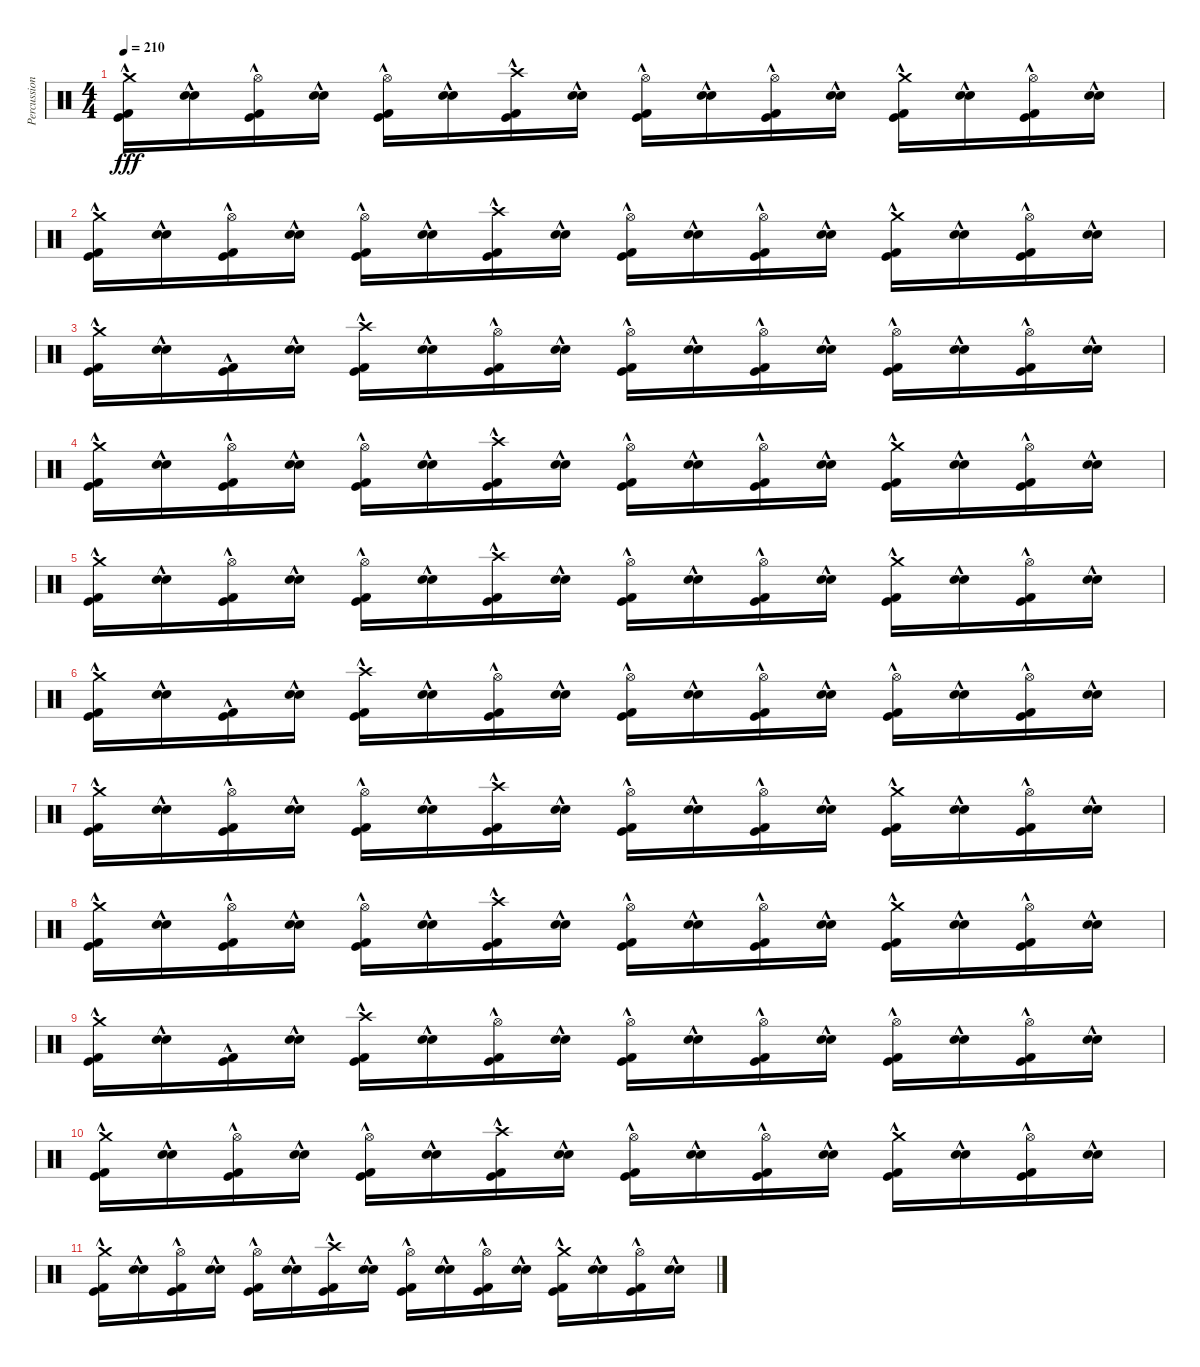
\track ("Percussion" "Percussion") {instrument percussion}
\staff {score}
\articulation defaults
\ts (4 4)
\tempo 210
\clef neutral
\ks c
("Crash medium (hit)"{hac} "Kick (hit)"{hac} "Kick (hit) 2"{hac}).16{dy fff} ("Electric Snare (hit)"{hac} "Snare (hit) 2"{hac}).16 ("Hi-Hat (open)" "Kick (hit)"{hac} "Kick (hit) 2"{hac}).16 ("Electric Snare (hit)"{hac} "Snare (hit) 2"{hac}).16 ("Hi-Hat (open)"{hac} "Kick (hit)"{hac} "Kick (hit) 2"{hac}).16 ("Electric Snare (hit)"{hac} "Snare (hit) 2"{hac}).16 ("Crash high (hit)"{hac} "Kick (hit)"{hac} "Kick (hit) 2"{hac}).16 ("Electric Snare (hit)"{hac} "Snare (hit) 2"{hac}).16 ("Hi-Hat (open)"{hac} "Kick (hit)"{hac} "Kick (hit) 2"{hac}).16 ("Electric Snare (hit)"{hac} "Snare (hit) 2"{hac}).16 ("Hi-Hat (open)"{hac} "Kick (hit)"{hac} "Kick (hit) 2"{hac}).16 ("Electric Snare (hit)"{hac} "Snare (hit) 2"{hac}).16 ("Crash medium (hit)"{hac} "Kick (hit)"{hac} "Kick (hit) 2"{hac}).16 ("Electric Snare (hit)"{hac} "Snare (hit) 2"{hac}).16 ("Hi-Hat (open)"{hac} "Kick (hit)"{hac} "Kick (hit) 2"{hac}).16 ("Electric Snare (hit)"{hac} "Snare (hit) 2"{hac}).16 |
("Crash medium (hit)"{hac} "Kick (hit)"{hac} "Kick (hit) 2"{hac}).16 ("Electric Snare (hit)"{hac} "Snare (hit) 2"{hac}).16 ("Hi-Hat (open)" "Kick (hit)"{hac} "Kick (hit) 2"{hac}).16 ("Electric Snare (hit)"{hac} "Snare (hit) 2"{hac}).16 ("Hi-Hat (open)"{hac} "Kick (hit)"{hac} "Kick (hit) 2"{hac}).16 ("Electric Snare (hit)"{hac} "Snare (hit) 2"{hac}).16 ("Crash high (hit)"{hac} "Kick (hit)"{hac} "Kick (hit) 2"{hac}).16 ("Electric Snare (hit)"{hac} "Snare (hit) 2"{hac}).16 ("Hi-Hat (open)"{hac} "Kick (hit)"{hac} "Kick (hit) 2"{hac}).16 ("Electric Snare (hit)"{hac} "Snare (hit) 2"{hac}).16 ("Hi-Hat (open)"{hac} "Kick (hit)"{hac} "Kick (hit) 2"{hac}).16 ("Electric Snare (hit)"{hac} "Snare (hit) 2"{hac}).16 ("Crash medium (hit)"{hac} "Kick (hit)"{hac} "Kick (hit) 2"{hac}).16 ("Electric Snare (hit)"{hac} "Snare (hit) 2"{hac}).16 ("Hi-Hat (open)"{hac} "Kick (hit)"{hac} "Kick (hit) 2"{hac}).16 ("Electric Snare (hit)"{hac} "Snare (hit) 2"{hac}).16 |
("Crash medium (hit)"{hac} "Kick (hit)"{hac} "Kick (hit) 2"{hac}).16 ("Electric Snare (hit)"{hac} "Snare (hit) 2"{hac}).16 ("Kick (hit)"{hac} "Kick (hit) 2"{hac}).16 ("Electric Snare (hit)"{hac} "Snare (hit) 2"{hac}).16 ("Crash high (hit)"{hac} "Kick (hit)"{hac} "Kick (hit) 2"{hac}).16 ("Electric Snare (hit)"{hac} "Snare (hit) 2"{hac}).16 ("Hi-Hat (open)"{hac} "Kick (hit)"{hac} "Kick (hit) 2"{hac}).16 ("Electric Snare (hit)"{hac} "Snare (hit) 2"{hac}).16 ("Hi-Hat (open)"{hac} "Kick (hit)"{hac} "Kick (hit) 2"{hac}).16 ("Electric Snare (hit)"{hac} "Snare (hit) 2"{hac}).16 ("Hi-Hat (open)"{hac} "Kick (hit)"{hac} "Kick (hit) 2"{hac}).16 ("Electric Snare (hit)"{hac} "Snare (hit) 2"{hac}).16 ("Hi-Hat (open)"{hac} "Kick (hit)"{hac} "Kick (hit) 2"{hac}).16 ("Electric Snare (hit)"{hac} "Snare (hit) 2"{hac}).16 ("Hi-Hat (open)"{hac} "Kick (hit)"{hac} "Kick (hit) 2"{hac}).16 ("Electric Snare (hit)"{hac} "Snare (hit) 2"{hac}).16 |
("Crash medium (hit)"{hac} "Kick (hit)"{hac} "Kick (hit) 2"{hac}).16 ("Electric Snare (hit)"{hac} "Snare (hit) 2"{hac}).16 ("Hi-Hat (open)" "Kick (hit)"{hac} "Kick (hit) 2"{hac}).16 ("Electric Snare (hit)"{hac} "Snare (hit) 2"{hac}).16 ("Hi-Hat (open)"{hac} "Kick (hit)"{hac} "Kick (hit) 2"{hac}).16 ("Electric Snare (hit)"{hac} "Snare (hit) 2"{hac}).16 ("Crash high (hit)"{hac} "Kick (hit)"{hac} "Kick (hit) 2"{hac}).16 ("Electric Snare (hit)"{hac} "Snare (hit) 2"{hac}).16 ("Hi-Hat (open)"{hac} "Kick (hit)"{hac} "Kick (hit) 2"{hac}).16 ("Electric Snare (hit)"{hac} "Snare (hit) 2"{hac}).16 ("Hi-Hat (open)"{hac} "Kick (hit)"{hac} "Kick (hit) 2"{hac}).16 ("Electric Snare (hit)"{hac} "Snare (hit) 2"{hac}).16 ("Crash medium (hit)"{hac} "Kick (hit)"{hac} "Kick (hit) 2"{hac}).16 ("Electric Snare (hit)"{hac} "Snare (hit) 2"{hac}).16 ("Hi-Hat (open)"{hac} "Kick (hit)"{hac} "Kick (hit) 2"{hac}).16 ("Electric Snare (hit)"{hac} "Snare (hit) 2"{hac}).16 |
("Crash medium (hit)"{hac} "Kick (hit)"{hac} "Kick (hit) 2"{hac}).16 ("Electric Snare (hit)"{hac} "Snare (hit) 2"{hac}).16 ("Hi-Hat (open)" "Kick (hit)"{hac} "Kick (hit) 2"{hac}).16 ("Electric Snare (hit)"{hac} "Snare (hit) 2"{hac}).16 ("Hi-Hat (open)"{hac} "Kick (hit)"{hac} "Kick (hit) 2"{hac}).16 ("Electric Snare (hit)"{hac} "Snare (hit) 2"{hac}).16 ("Crash high (hit)"{hac} "Kick (hit)"{hac} "Kick (hit) 2"{hac}).16 ("Electric Snare (hit)"{hac} "Snare (hit) 2"{hac}).16 ("Hi-Hat (open)"{hac} "Kick (hit)"{hac} "Kick (hit) 2"{hac}).16 ("Electric Snare (hit)"{hac} "Snare (hit) 2"{hac}).16 ("Hi-Hat (open)"{hac} "Kick (hit)"{hac} "Kick (hit) 2"{hac}).16 ("Electric Snare (hit)"{hac} "Snare (hit) 2"{hac}).16 ("Crash medium (hit)"{hac} "Kick (hit)"{hac} "Kick (hit) 2"{hac}).16 ("Electric Snare (hit)"{hac} "Snare (hit) 2"{hac}).16 ("Hi-Hat (open)"{hac} "Kick (hit)"{hac} "Kick (hit) 2"{hac}).16 ("Electric Snare (hit)"{hac} "Snare (hit) 2"{hac}).16 |
("Crash medium (hit)"{hac} "Kick (hit)"{hac} "Kick (hit) 2"{hac}).16 ("Electric Snare (hit)"{hac} "Snare (hit) 2"{hac}).16 ("Kick (hit)"{hac} "Kick (hit) 2"{hac}).16 ("Electric Snare (hit)"{hac} "Snare (hit) 2"{hac}).16 ("Crash high (hit)"{hac} "Kick (hit)"{hac} "Kick (hit) 2"{hac}).16 ("Electric Snare (hit)"{hac} "Snare (hit) 2"{hac}).16 ("Hi-Hat (open)"{hac} "Kick (hit)"{hac} "Kick (hit) 2"{hac}).16 ("Electric Snare (hit)"{hac} "Snare (hit) 2"{hac}).16 ("Hi-Hat (open)"{hac} "Kick (hit)"{hac} "Kick (hit) 2"{hac}).16 ("Electric Snare (hit)"{hac} "Snare (hit) 2"{hac}).16 ("Hi-Hat (open)"{hac} "Kick (hit)"{hac} "Kick (hit) 2"{hac}).16 ("Electric Snare (hit)"{hac} "Snare (hit) 2"{hac}).16 ("Hi-Hat (open)"{hac} "Kick (hit)"{hac} "Kick (hit) 2"{hac}).16 ("Electric Snare (hit)"{hac} "Snare (hit) 2"{hac}).16 ("Hi-Hat (open)"{hac} "Kick (hit)"{hac} "Kick (hit) 2"{hac}).16 ("Electric Snare (hit)"{hac} "Snare (hit) 2"{hac}).16 |
("Crash medium (hit)"{hac} "Kick (hit)"{hac} "Kick (hit) 2"{hac}).16 ("Electric Snare (hit)"{hac} "Snare (hit) 2"{hac}).16 ("Hi-Hat (open)" "Kick (hit)"{hac} "Kick (hit) 2"{hac}).16 ("Electric Snare (hit)"{hac} "Snare (hit) 2"{hac}).16 ("Hi-Hat (open)"{hac} "Kick (hit)"{hac} "Kick (hit) 2"{hac}).16 ("Electric Snare (hit)"{hac} "Snare (hit) 2"{hac}).16 ("Crash high (hit)"{hac} "Kick (hit)"{hac} "Kick (hit) 2"{hac}).16 ("Electric Snare (hit)"{hac} "Snare (hit) 2"{hac}).16 ("Hi-Hat (open)"{hac} "Kick (hit)"{hac} "Kick (hit) 2"{hac}).16 ("Electric Snare (hit)"{hac} "Snare (hit) 2"{hac}).16 ("Hi-Hat (open)"{hac} "Kick (hit)"{hac} "Kick (hit) 2"{hac}).16 ("Electric Snare (hit)"{hac} "Snare (hit) 2"{hac}).16 ("Crash medium (hit)"{hac} "Kick (hit)"{hac} "Kick (hit) 2"{hac}).16 ("Electric Snare (hit)"{hac} "Snare (hit) 2"{hac}).16 ("Hi-Hat (open)"{hac} "Kick (hit)"{hac} "Kick (hit) 2"{hac}).16 ("Electric Snare (hit)"{hac} "Snare (hit) 2"{hac}).16 |
("Crash medium (hit)"{hac} "Kick (hit)"{hac} "Kick (hit) 2"{hac}).16 ("Electric Snare (hit)"{hac} "Snare (hit) 2"{hac}).16 ("Hi-Hat (open)" "Kick (hit)"{hac} "Kick (hit) 2"{hac}).16 ("Electric Snare (hit)"{hac} "Snare (hit) 2"{hac}).16 ("Hi-Hat (open)"{hac} "Kick (hit)"{hac} "Kick (hit) 2"{hac}).16 ("Electric Snare (hit)"{hac} "Snare (hit) 2"{hac}).16 ("Crash high (hit)"{hac} "Kick (hit)"{hac} "Kick (hit) 2"{hac}).16 ("Electric Snare (hit)"{hac} "Snare (hit) 2"{hac}).16 ("Hi-Hat (open)"{hac} "Kick (hit)"{hac} "Kick (hit) 2"{hac}).16 ("Electric Snare (hit)"{hac} "Snare (hit) 2"{hac}).16 ("Hi-Hat (open)"{hac} "Kick (hit)"{hac} "Kick (hit) 2"{hac}).16 ("Electric Snare (hit)"{hac} "Snare (hit) 2"{hac}).16 ("Crash medium (hit)"{hac} "Kick (hit)"{hac} "Kick (hit) 2"{hac}).16 ("Electric Snare (hit)"{hac} "Snare (hit) 2"{hac}).16 ("Hi-Hat (open)"{hac} "Kick (hit)"{hac} "Kick (hit) 2"{hac}).16 ("Electric Snare (hit)"{hac} "Snare (hit) 2"{hac}).16 |
("Crash medium (hit)"{hac} "Kick (hit)"{hac} "Kick (hit) 2"{hac}).16 ("Electric Snare (hit)"{hac} "Snare (hit) 2"{hac}).16 ("Kick (hit)"{hac} "Kick (hit) 2"{hac}).16 ("Electric Snare (hit)"{hac} "Snare (hit) 2"{hac}).16 ("Crash high (hit)"{hac} "Kick (hit)"{hac} "Kick (hit) 2"{hac}).16 ("Electric Snare (hit)"{hac} "Snare (hit) 2"{hac}).16 ("Hi-Hat (open)"{hac} "Kick (hit)"{hac} "Kick (hit) 2"{hac}).16 ("Electric Snare (hit)"{hac} "Snare (hit) 2"{hac}).16 ("Hi-Hat (open)"{hac} "Kick (hit)"{hac} "Kick (hit) 2"{hac}).16 ("Electric Snare (hit)"{hac} "Snare (hit) 2"{hac}).16 ("Hi-Hat (open)"{hac} "Kick (hit)"{hac} "Kick (hit) 2"{hac}).16 ("Electric Snare (hit)"{hac} "Snare (hit) 2"{hac}).16 ("Hi-Hat (open)"{hac} "Kick (hit)"{hac} "Kick (hit) 2"{hac}).16 ("Electric Snare (hit)"{hac} "Snare (hit) 2"{hac}).16 ("Hi-Hat (open)"{hac} "Kick (hit)"{hac} "Kick (hit) 2"{hac}).16 ("Electric Snare (hit)"{hac} "Snare (hit) 2"{hac}).16 |
("Crash medium (hit)"{hac} "Kick (hit)"{hac} "Kick (hit) 2"{hac}).16 ("Electric Snare (hit)"{hac} "Snare (hit) 2"{hac}).16 ("Hi-Hat (open)" "Kick (hit)"{hac} "Kick (hit) 2"{hac}).16 ("Electric Snare (hit)"{hac} "Snare (hit) 2"{hac}).16 ("Hi-Hat (open)"{hac} "Kick (hit)"{hac} "Kick (hit) 2"{hac}).16 ("Electric Snare (hit)"{hac} "Snare (hit) 2"{hac}).16 ("Crash high (hit)"{hac} "Kick (hit)"{hac} "Kick (hit) 2"{hac}).16 ("Electric Snare (hit)"{hac} "Snare (hit) 2"{hac}).16 ("Hi-Hat (open)"{hac} "Kick (hit)"{hac} "Kick (hit) 2"{hac}).16 ("Electric Snare (hit)"{hac} "Snare (hit) 2"{hac}).16 ("Hi-Hat (open)"{hac} "Kick (hit)"{hac} "Kick (hit) 2"{hac}).16 ("Electric Snare (hit)"{hac} "Snare (hit) 2"{hac}).16 ("Crash medium (hit)"{hac} "Kick (hit)"{hac} "Kick (hit) 2"{hac}).16 ("Electric Snare (hit)"{hac} "Snare (hit) 2"{hac}).16 ("Hi-Hat (open)"{hac} "Kick (hit)"{hac} "Kick (hit) 2"{hac}).16 ("Electric Snare (hit)"{hac} "Snare (hit) 2"{hac}).16 |
("Crash medium (hit)"{hac} "Kick (hit)"{hac} "Kick (hit) 2"{hac}).16 ("Electric Snare (hit)"{hac} "Snare (hit) 2"{hac}).16 ("Hi-Hat (open)" "Kick (hit)"{hac} "Kick (hit) 2"{hac}).16 ("Electric Snare (hit)"{hac} "Snare (hit) 2"{hac}).16 ("Hi-Hat (open)"{hac} "Kick (hit)"{hac} "Kick (hit) 2"{hac}).16 ("Electric Snare (hit)"{hac} "Snare (hit) 2"{hac}).16 ("Crash high (hit)"{hac} "Kick (hit)"{hac} "Kick (hit) 2"{hac}).16 ("Electric Snare (hit)"{hac} "Snare (hit) 2"{hac}).16 ("Hi-Hat (open)"{hac} "Kick (hit)"{hac} "Kick (hit) 2"{hac}).16 ("Electric Snare (hit)"{hac} "Snare (hit) 2"{hac}).16 ("Hi-Hat (open)"{hac} "Kick (hit)"{hac} "Kick (hit) 2"{hac}).16 ("Electric Snare (hit)"{hac} "Snare (hit) 2"{hac}).16 ("Crash medium (hit)"{hac} "Kick (hit)"{hac} "Kick (hit) 2"{hac}).16 ("Electric Snare (hit)"{hac} "Snare (hit) 2"{hac}).16 ("Hi-Hat (open)"{hac} "Kick (hit)"{hac} "Kick (hit) 2"{hac}).16 ("Electric Snare (hit)"{hac} "Snare (hit) 2"{hac}).16
